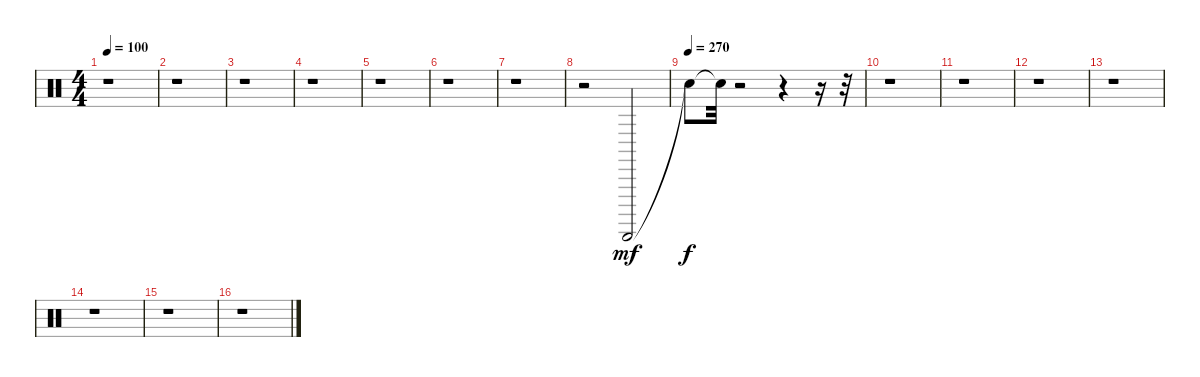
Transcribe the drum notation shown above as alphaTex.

\track "" {instrument percussion}
\staff {score}
\articulation defaults
\ts (4 4)
\tempo 100
\clef neutral
\ks c
r.1{dy mf} |
r.1 |
r.1 |
r.1 |
r.1 |
r.1 |
r.1 |
r.2 "Guiro (scrap-return)".2 |
\tempo (270)
"Snare (hit)"{t}.8{dy f} "Snare (hit)"{t}.32 r.2 r.4 r.16 r.32 |
r.1 |
r.1 |
r.1 |
r.1 |
r.1 |
r.1 |
r.1
